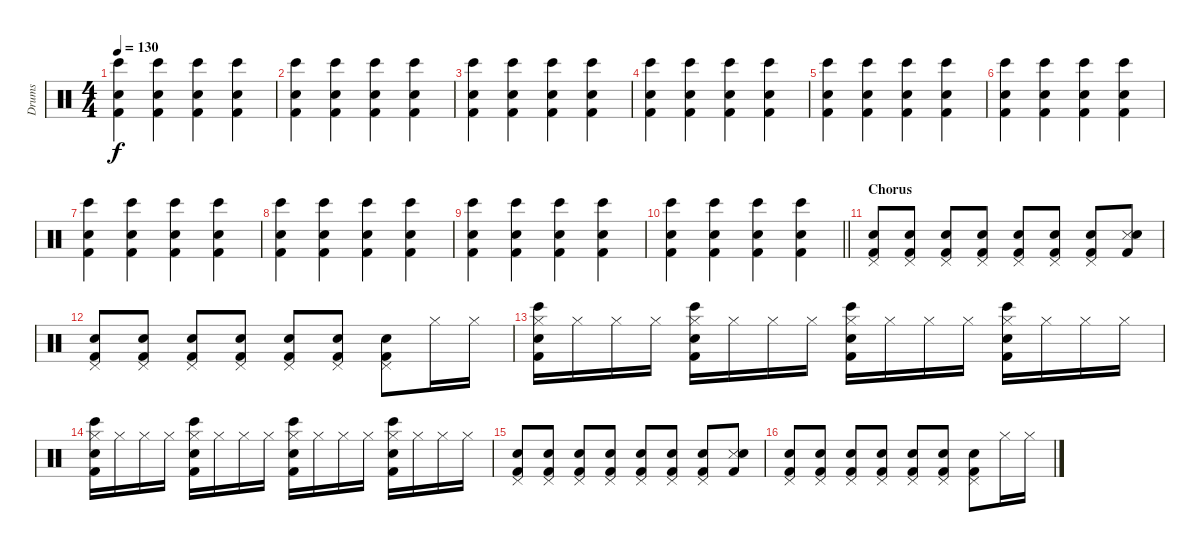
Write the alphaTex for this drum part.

\track ("Drums" "Drums") {instrument percussion}
\staff {score}
\articulation defaults
\ts (4 4)
\tempo 130
\clef neutral
\ks c
("Electric Snare (hit)" "Kick (hit) 2" "Bongo High (hit)").4{dy f} ("Electric Snare (hit)" "Kick (hit) 2" "Bongo High (hit)").4 ("Electric Snare (hit)" "Kick (hit) 2" "Bongo High (hit)").4 ("Electric Snare (hit)" "Kick (hit) 2" "Bongo High (hit)").4 |
("Electric Snare (hit)" "Kick (hit) 2" "Bongo High (hit)").4 ("Electric Snare (hit)" "Kick (hit) 2" "Bongo High (hit)").4 ("Electric Snare (hit)" "Kick (hit) 2" "Bongo High (hit)").4 ("Electric Snare (hit)" "Kick (hit) 2" "Bongo High (hit)").4 |
("Electric Snare (hit)" "Kick (hit) 2" "Bongo High (hit)").4 ("Electric Snare (hit)" "Kick (hit) 2" "Bongo High (hit)").4 ("Electric Snare (hit)" "Kick (hit) 2" "Bongo High (hit)").4 ("Electric Snare (hit)" "Kick (hit) 2" "Bongo High (hit)").4 |
("Electric Snare (hit)" "Kick (hit) 2" "Bongo High (hit)").4 ("Electric Snare (hit)" "Kick (hit) 2" "Bongo High (hit)").4 ("Electric Snare (hit)" "Kick (hit) 2" "Bongo High (hit)").4 ("Electric Snare (hit)" "Kick (hit) 2" "Bongo High (hit)").4 |
("Electric Snare (hit)" "Kick (hit) 2" "Bongo High (hit)").4 ("Electric Snare (hit)" "Kick (hit) 2" "Bongo High (hit)").4 ("Electric Snare (hit)" "Kick (hit) 2" "Bongo High (hit)").4 ("Electric Snare (hit)" "Kick (hit) 2" "Bongo High (hit)").4 |
("Electric Snare (hit)" "Kick (hit) 2" "Bongo High (hit)").4 ("Electric Snare (hit)" "Kick (hit) 2" "Bongo High (hit)").4 ("Electric Snare (hit)" "Kick (hit) 2" "Bongo High (hit)").4 ("Electric Snare (hit)" "Kick (hit) 2" "Bongo High (hit)").4 |
("Electric Snare (hit)" "Kick (hit) 2" "Bongo High (hit)").4 ("Electric Snare (hit)" "Kick (hit) 2" "Bongo High (hit)").4 ("Electric Snare (hit)" "Kick (hit) 2" "Bongo High (hit)").4 ("Electric Snare (hit)" "Kick (hit) 2" "Bongo High (hit)").4 |
("Electric Snare (hit)" "Kick (hit) 2" "Bongo High (hit)").4 ("Electric Snare (hit)" "Kick (hit) 2" "Bongo High (hit)").4 ("Electric Snare (hit)" "Kick (hit) 2" "Bongo High (hit)").4 ("Electric Snare (hit)" "Kick (hit) 2" "Bongo High (hit)").4 |
("Electric Snare (hit)" "Kick (hit) 2" "Bongo High (hit)").4 ("Electric Snare (hit)" "Kick (hit) 2" "Bongo High (hit)").4 ("Electric Snare (hit)" "Kick (hit) 2" "Bongo High (hit)").4 ("Electric Snare (hit)" "Kick (hit) 2" "Bongo High (hit)").4 |
\barLineRight lightlight
("Electric Snare (hit)" "Kick (hit) 2" "Bongo High (hit)").4 ("Electric Snare (hit)" "Kick (hit) 2" "Bongo High (hit)").4 ("Electric Snare (hit)" "Kick (hit) 2" "Bongo High (hit)").4 ("Electric Snare (hit)" "Kick (hit) 2" "Bongo High (hit)").4 |
\section ("" "Chorus")
("Pedal Hi-Hat (hit)" "Kick (hit) 2" "Electric Snare (hit)").8 ("Pedal Hi-Hat (hit)" "Kick (hit) 2" "Electric Snare (hit)").8 ("Pedal Hi-Hat (hit)" "Kick (hit) 2" "Electric Snare (hit)").8 ("Pedal Hi-Hat (hit)" "Kick (hit) 2" "Electric Snare (hit)").8 ("Pedal Hi-Hat (hit)" "Kick (hit) 2" "Electric Snare (hit)").8 ("Pedal Hi-Hat (hit)" "Kick (hit) 2" "Electric Snare (hit)").8 ("Pedal Hi-Hat (hit)" "Kick (hit) 2" "Electric Snare (hit)").8 ("Snare (side stick) 3" "Kick (hit) 2" "Electric Snare (hit)").8 |
("Pedal Hi-Hat (hit)" "Kick (hit) 2" "Electric Snare (hit)").8 ("Pedal Hi-Hat (hit)" "Kick (hit) 2" "Electric Snare (hit)").8 ("Pedal Hi-Hat (hit)" "Kick (hit) 2" "Electric Snare (hit)").8 ("Pedal Hi-Hat (hit)" "Kick (hit) 2" "Electric Snare (hit)").8 ("Pedal Hi-Hat (hit)" "Kick (hit) 2" "Electric Snare (hit)").8 ("Pedal Hi-Hat (hit)" "Kick (hit) 2" "Electric Snare (hit)").8 ("Pedal Hi-Hat (hit)" "Kick (hit) 2" "Electric Snare (hit)").8 "Hi-Hat (closed)".16 "Hi-Hat (closed)".16 |
("Hi-Hat (closed)" "Electric Snare (hit)" "Kick (hit) 2" "Bongo High (hit)").16 "Hi-Hat (closed)".16 "Hi-Hat (closed)".16 "Hi-Hat (closed)".16 ("Hi-Hat (closed)" "Electric Snare (hit)" "Kick (hit) 2" "Bongo High (hit)").16 "Hi-Hat (closed)".16 "Hi-Hat (closed)".16 "Hi-Hat (closed)".16 ("Hi-Hat (closed)" "Electric Snare (hit)" "Kick (hit) 2" "Bongo High (hit)").16 "Hi-Hat (closed)".16 "Hi-Hat (closed)".16 "Hi-Hat (closed)".16 ("Hi-Hat (closed)" "Electric Snare (hit)" "Kick (hit) 2" "Bongo High (hit)").16 "Hi-Hat (closed)".16 "Hi-Hat (closed)".16 "Hi-Hat (closed)".16 |
("Hi-Hat (closed)" "Electric Snare (hit)" "Kick (hit) 2" "Bongo High (hit)").16 "Hi-Hat (closed)".16 "Hi-Hat (closed)".16 "Hi-Hat (closed)".16 ("Hi-Hat (closed)" "Electric Snare (hit)" "Kick (hit) 2" "Bongo High (hit)").16 "Hi-Hat (closed)".16 "Hi-Hat (closed)".16 "Hi-Hat (closed)".16 ("Hi-Hat (closed)" "Electric Snare (hit)" "Kick (hit) 2" "Bongo High (hit)").16 "Hi-Hat (closed)".16 "Hi-Hat (closed)".16 "Hi-Hat (closed)".16 ("Hi-Hat (closed)" "Electric Snare (hit)" "Kick (hit) 2" "Bongo High (hit)").16 "Hi-Hat (closed)".16 "Hi-Hat (closed)".16 "Hi-Hat (closed)".16 |
("Pedal Hi-Hat (hit)" "Kick (hit) 2" "Electric Snare (hit)").8 ("Pedal Hi-Hat (hit)" "Kick (hit) 2" "Electric Snare (hit)").8 ("Pedal Hi-Hat (hit)" "Kick (hit) 2" "Electric Snare (hit)").8 ("Pedal Hi-Hat (hit)" "Kick (hit) 2" "Electric Snare (hit)").8 ("Pedal Hi-Hat (hit)" "Kick (hit) 2" "Electric Snare (hit)").8 ("Pedal Hi-Hat (hit)" "Kick (hit) 2" "Electric Snare (hit)").8 ("Pedal Hi-Hat (hit)" "Kick (hit) 2" "Electric Snare (hit)").8 ("Snare (side stick) 3" "Kick (hit) 2" "Electric Snare (hit)").8 |
("Pedal Hi-Hat (hit)" "Kick (hit) 2" "Electric Snare (hit)").8 ("Pedal Hi-Hat (hit)" "Kick (hit) 2" "Electric Snare (hit)").8 ("Pedal Hi-Hat (hit)" "Kick (hit) 2" "Electric Snare (hit)").8 ("Pedal Hi-Hat (hit)" "Kick (hit) 2" "Electric Snare (hit)").8 ("Pedal Hi-Hat (hit)" "Kick (hit) 2" "Electric Snare (hit)").8 ("Pedal Hi-Hat (hit)" "Kick (hit) 2" "Electric Snare (hit)").8 ("Pedal Hi-Hat (hit)" "Kick (hit) 2" "Electric Snare (hit)").8 "Hi-Hat (closed)".16 "Hi-Hat (closed)".16
